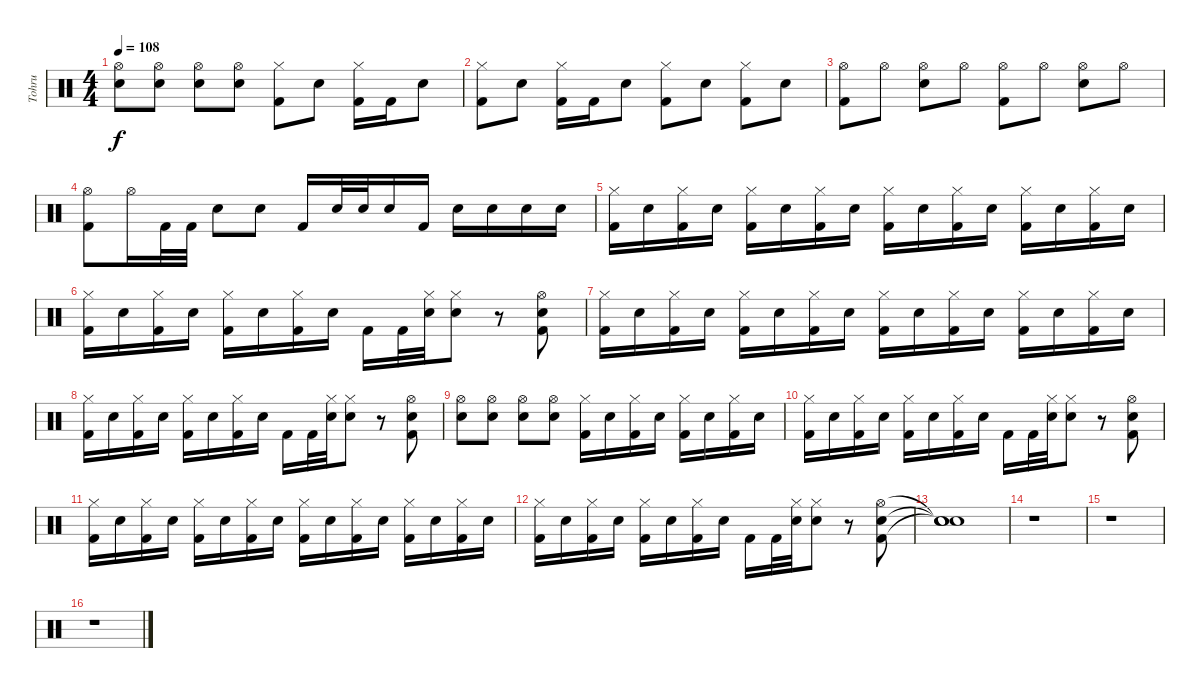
\track ("Tohru" "Tohru") {instrument percussion}
\staff {score}
\articulation defaults
\ts (4 4)
\tempo 108
\clef neutral
\ks c
("Hi-Hat (open)" "Electric Snare (hit)").8{dy f} ("Hi-Hat (open)" "Electric Snare (hit)").8 ("Hi-Hat (open)" "Electric Snare (hit)").8 ("Hi-Hat (open)" "Electric Snare (hit)").8 ("Hi-Hat (closed)" "Kick (hit) 2").8 "Electric Snare (hit)".8 ("Hi-Hat (closed)" "Kick (hit) 2").16 "Kick (hit) 2".16 "Electric Snare (hit)".8 |
("Hi-Hat (closed)" "Kick (hit) 2").8 "Electric Snare (hit)".8 ("Hi-Hat (closed)" "Kick (hit) 2").16 "Kick (hit) 2".16 "Electric Snare (hit)".8 ("Hi-Hat (closed)" "Kick (hit) 2").8 "Electric Snare (hit)".8 ("Kick (hit) 2" "Hi-Hat (closed)").8 "Electric Snare (hit)".8 |
("Kick (hit) 2" "Hi-Hat (open)").8 "Hi-Hat (open)".8 ("Electric Snare (hit)" "Hi-Hat (open)").8 "Hi-Hat (open)".8 ("Kick (hit) 2" "Hi-Hat (open)").8 "Hi-Hat (open)".8 ("Electric Snare (hit)" "Hi-Hat (open)").8 "Hi-Hat (open)".8 |
("Kick (hit) 2" "Hi-Hat (open)").8 "Hi-Hat (open)".16 "Kick (hit) 2".32 "Kick (hit) 2".32 "Electric Snare (hit)".8 "Electric Snare (hit)".8 "Kick (hit) 2".16 "Electric Snare (hit)".32 "Electric Snare (hit)".32 "Electric Snare (hit)".16 "Kick (hit) 2".16 "Electric Snare (hit)".16 "Electric Snare (hit)".16 "Electric Snare (hit)".16 "Electric Snare (hit)".16 |
("Hi-Hat (closed)" "Kick (hit) 2").16 "Electric Snare (hit)".16 ("Hi-Hat (closed)" "Kick (hit) 2").16 "Electric Snare (hit)".16 ("Hi-Hat (closed)" "Kick (hit) 2").16 "Electric Snare (hit)".16 ("Hi-Hat (closed)" "Kick (hit) 2").16 "Electric Snare (hit)".16 ("Hi-Hat (closed)" "Kick (hit) 2").16 "Electric Snare (hit)".16 ("Hi-Hat (closed)" "Kick (hit) 2").16 "Electric Snare (hit)".16 ("Hi-Hat (closed)" "Kick (hit) 2").16 "Electric Snare (hit)".16 ("Hi-Hat (closed)" "Kick (hit) 2").16 "Electric Snare (hit)".16 |
("Hi-Hat (closed)" "Kick (hit) 2").16 "Electric Snare (hit)".16 ("Hi-Hat (closed)" "Kick (hit) 2").16 "Electric Snare (hit)".16 ("Hi-Hat (closed)" "Kick (hit) 2").16 "Electric Snare (hit)".16 ("Hi-Hat (closed)" "Kick (hit) 2").16 "Electric Snare (hit)".16 "Kick (hit) 2".16 "Kick (hit) 2".32 ("Hi-Hat (closed)" "Electric Snare (hit)").32 ("Hi-Hat (closed)" "Electric Snare (hit)").8 r.8 ("Kick (hit) 2" "Hi-Hat (open)" "Electric Snare (hit)").8 |
("Hi-Hat (closed)" "Kick (hit) 2").16 "Electric Snare (hit)".16 ("Hi-Hat (closed)" "Kick (hit) 2").16 "Electric Snare (hit)".16 ("Hi-Hat (closed)" "Kick (hit) 2").16 "Electric Snare (hit)".16 ("Hi-Hat (closed)" "Kick (hit) 2").16 "Electric Snare (hit)".16 ("Hi-Hat (closed)" "Kick (hit) 2").16 "Electric Snare (hit)".16 ("Hi-Hat (closed)" "Kick (hit) 2").16 "Electric Snare (hit)".16 ("Hi-Hat (closed)" "Kick (hit) 2").16 "Electric Snare (hit)".16 ("Hi-Hat (closed)" "Kick (hit) 2").16 "Electric Snare (hit)".16 |
("Hi-Hat (closed)" "Kick (hit) 2").16 "Electric Snare (hit)".16 ("Hi-Hat (closed)" "Kick (hit) 2").16 "Electric Snare (hit)".16 ("Hi-Hat (closed)" "Kick (hit) 2").16 "Electric Snare (hit)".16 ("Hi-Hat (closed)" "Kick (hit) 2").16 "Electric Snare (hit)".16 "Kick (hit) 2".16 "Kick (hit) 2".32 ("Hi-Hat (closed)" "Electric Snare (hit)").32 ("Hi-Hat (closed)" "Electric Snare (hit)").8 r.8 ("Kick (hit) 2" "Hi-Hat (open)" "Electric Snare (hit)").8 |
("Hi-Hat (open)" "Electric Snare (hit)").8 ("Hi-Hat (open)" "Electric Snare (hit)").8 ("Hi-Hat (open)" "Electric Snare (hit)").8 ("Hi-Hat (open)" "Electric Snare (hit)").8 ("Hi-Hat (closed)" "Kick (hit) 2").16 "Electric Snare (hit)".16 ("Hi-Hat (closed)" "Kick (hit) 2").16 "Electric Snare (hit)".16 ("Hi-Hat (closed)" "Kick (hit) 2").16 "Electric Snare (hit)".16 ("Hi-Hat (closed)" "Kick (hit) 2").16 "Electric Snare (hit)".16 |
("Hi-Hat (closed)" "Kick (hit) 2").16 "Electric Snare (hit)".16 ("Hi-Hat (closed)" "Kick (hit) 2").16 "Electric Snare (hit)".16 ("Hi-Hat (closed)" "Kick (hit) 2").16 "Electric Snare (hit)".16 ("Hi-Hat (closed)" "Kick (hit) 2").16 "Electric Snare (hit)".16 "Kick (hit) 2".16 "Kick (hit) 2".32 ("Hi-Hat (closed)" "Electric Snare (hit)").32 ("Hi-Hat (closed)" "Electric Snare (hit)").8 r.8 ("Kick (hit) 2" "Hi-Hat (open)" "Electric Snare (hit)").8 |
("Hi-Hat (closed)" "Kick (hit) 2").16 "Electric Snare (hit)".16 ("Hi-Hat (closed)" "Kick (hit) 2").16 "Electric Snare (hit)".16 ("Hi-Hat (closed)" "Kick (hit) 2").16 "Electric Snare (hit)".16 ("Hi-Hat (closed)" "Kick (hit) 2").16 "Electric Snare (hit)".16 ("Hi-Hat (closed)" "Kick (hit) 2").16 "Electric Snare (hit)".16 ("Hi-Hat (closed)" "Kick (hit) 2").16 "Electric Snare (hit)".16 ("Hi-Hat (closed)" "Kick (hit) 2").16 "Electric Snare (hit)".16 ("Hi-Hat (closed)" "Kick (hit) 2").16 "Electric Snare (hit)".16 |
("Hi-Hat (closed)" "Kick (hit) 2").16 "Electric Snare (hit)".16 ("Hi-Hat (closed)" "Kick (hit) 2").16 "Electric Snare (hit)".16 ("Hi-Hat (closed)" "Kick (hit) 2").16 "Electric Snare (hit)".16 ("Hi-Hat (closed)" "Kick (hit) 2").16 "Electric Snare (hit)".16 "Kick (hit) 2".16 "Kick (hit) 2".32 ("Hi-Hat (closed)" "Electric Snare (hit)").32 ("Hi-Hat (closed)" "Electric Snare (hit)").8 r.8 ("Kick (hit) 2" "Hi-Hat (open)" "Electric Snare (hit)").8 |
("Snare (hit)"{t} "Snare (hit)"{t} "Snare (hit)"{t}).1 |
r.1 |
r.1 |
r.1
